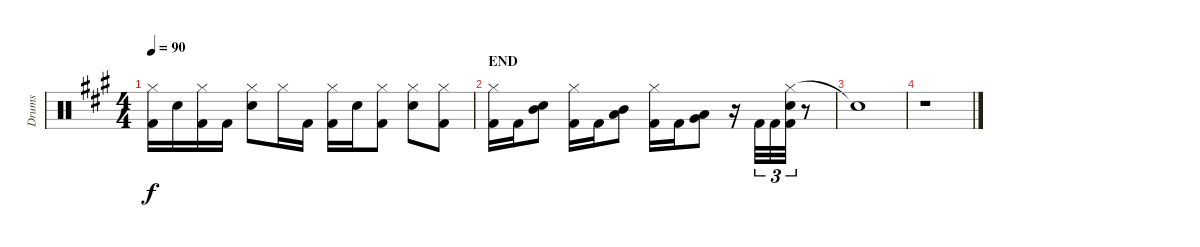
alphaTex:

\track ("Drums" "Drums") {instrument percussion}
\staff {score}
\articulation defaults
\ts (4 4)
\tempo 90
\clef neutral
\ks f#minor
("Hi-Hat (closed)" "Kick (hit) 2").16{dy f} "Electric Snare (hit)".16 ("Hi-Hat (closed)" "Kick (hit) 2").16 "Kick (hit) 2".16 ("Hi-Hat (closed)" "Electric Snare (hit)").8 "Hi-Hat (closed)".16 "Kick (hit) 2".16 ("Hi-Hat (closed)" "Kick (hit) 2").16 "Electric Snare (hit)".16 ("Hi-Hat (closed)" "Kick (hit) 2").8 ("Hi-Hat (closed)" "Electric Snare (hit)").8 ("Hi-Hat (closed)" "Kick (hit) 2").8 |
\section ("" "END")
("Hi-Hat (closed)" "Kick (hit) 2").16 "Kick (hit) 2".16 ("Mid Tom (hit)" "Electric Snare (hit)").8 ("Hi-Hat (closed)" "Kick (hit) 2").16 "Kick (hit) 2".16 ("Low Tom (hit)" "Mid Tom (hit)").8 ("Hi-Hat (closed)" "Kick (hit) 2").16 "Kick (hit) 2".16 ("Very Low Tom (hit)" "Low Tom (hit)").8 r.16 "Kick (hit) 2".32{tu (3 2)} "Kick (hit) 2".32{tu (3 2)} ("Hi-Hat (closed)" "Electric Snare (hit)" "Kick (hit) 2").32{tu (3 2)} r.8 |
"Snare (hit)"{t}.1 |
r.1
